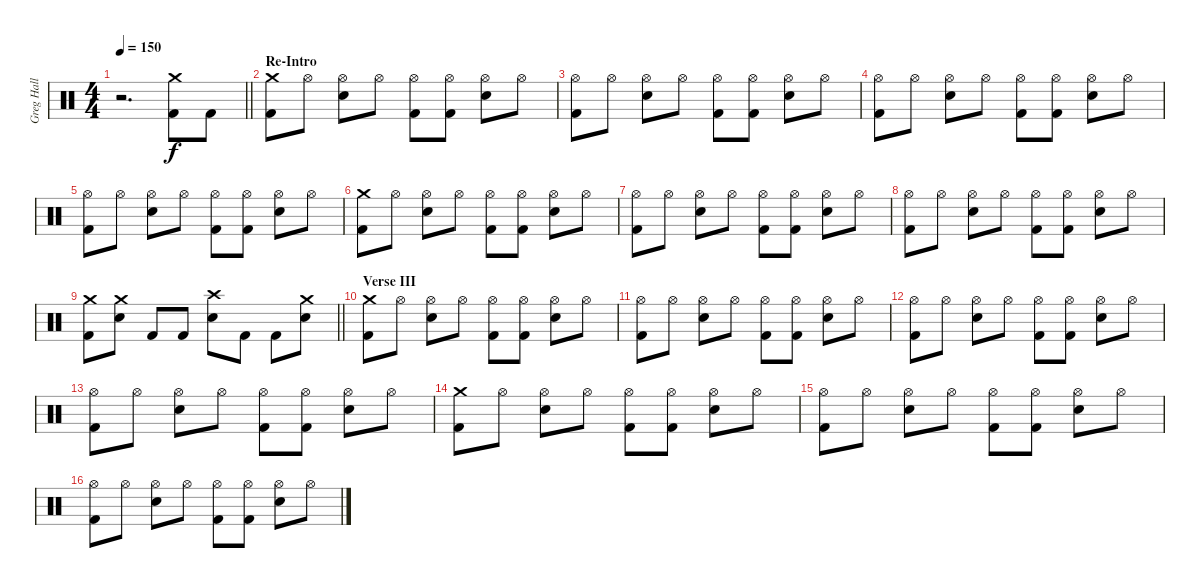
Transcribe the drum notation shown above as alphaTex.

\track ("Greg Hall" "Greg Hall") {instrument percussion}
\staff {score}
\articulation defaults
\ts (4 4)
\tempo 150
\clef neutral
\barLineRight lightlight
\ks c
r.2{d dy f} ("Crash medium (hit)" "Kick (hit) 2").8 "Kick (hit) 2".8 |
\section ("" "Re-Intro")
("Crash medium (hit)" "Kick (hit) 2").8 "Hi-Hat (open)".8 ("Hi-Hat (open)" "Electric Snare (hit)").8 "Hi-Hat (open)".8 ("Hi-Hat (open)" "Kick (hit) 2").8 ("Hi-Hat (open)" "Kick (hit) 2").8 ("Hi-Hat (open)" "Electric Snare (hit)").8 "Hi-Hat (open)".8 |
("Hi-Hat (open)" "Kick (hit) 2").8 "Hi-Hat (open)".8 ("Hi-Hat (open)" "Electric Snare (hit)").8 "Hi-Hat (open)".8 ("Hi-Hat (open)" "Kick (hit) 2").8 ("Hi-Hat (open)" "Kick (hit) 2").8 ("Hi-Hat (open)" "Electric Snare (hit)").8 "Hi-Hat (open)".8 |
("Hi-Hat (open)" "Kick (hit) 2").8 "Hi-Hat (open)".8 ("Hi-Hat (open)" "Electric Snare (hit)").8 "Hi-Hat (open)".8 ("Hi-Hat (open)" "Kick (hit) 2").8 ("Hi-Hat (open)" "Kick (hit) 2").8 ("Hi-Hat (open)" "Electric Snare (hit)").8 "Hi-Hat (open)".8 |
("Hi-Hat (open)" "Kick (hit) 2").8 "Hi-Hat (open)".8 ("Hi-Hat (open)" "Electric Snare (hit)").8 "Hi-Hat (open)".8 ("Hi-Hat (open)" "Kick (hit) 2").8 ("Hi-Hat (open)" "Kick (hit) 2").8 ("Hi-Hat (open)" "Electric Snare (hit)").8 "Hi-Hat (open)".8 |
("Crash medium (hit)" "Kick (hit) 2").8 "Hi-Hat (open)".8 ("Hi-Hat (open)" "Electric Snare (hit)").8 "Hi-Hat (open)".8 ("Hi-Hat (open)" "Kick (hit) 2").8 ("Hi-Hat (open)" "Kick (hit) 2").8 ("Hi-Hat (open)" "Electric Snare (hit)").8 "Hi-Hat (open)".8 |
("Hi-Hat (open)" "Kick (hit) 2").8 "Hi-Hat (open)".8 ("Hi-Hat (open)" "Electric Snare (hit)").8 "Hi-Hat (open)".8 ("Hi-Hat (open)" "Kick (hit) 2").8 ("Hi-Hat (open)" "Kick (hit) 2").8 ("Hi-Hat (open)" "Electric Snare (hit)").8 "Hi-Hat (open)".8 |
("Hi-Hat (open)" "Kick (hit) 2").8 "Hi-Hat (open)".8 ("Hi-Hat (open)" "Electric Snare (hit)").8 "Hi-Hat (open)".8 ("Hi-Hat (open)" "Kick (hit) 2").8 ("Hi-Hat (open)" "Kick (hit) 2").8 ("Hi-Hat (open)" "Electric Snare (hit)").8 "Hi-Hat (open)".8 |
\barLineRight lightlight
("Crash medium (hit)" "Kick (hit) 2").8 ("Crash medium (hit)" "Electric Snare (hit)").8 "Kick (hit) 2".8 "Kick (hit) 2".8 ("Crash high (hit)" "Electric Snare (hit)").8 "Kick (hit) 2".8 "Kick (hit) 2".8 ("Crash medium (hit)" "Electric Snare (hit)").8 |
\section ("" "Verse III")
("Crash medium (hit)" "Kick (hit) 2").8 "Hi-Hat (open)".8 ("Hi-Hat (open)" "Electric Snare (hit)").8 "Hi-Hat (open)".8 ("Hi-Hat (open)" "Kick (hit) 2").8 ("Hi-Hat (open)" "Kick (hit) 2").8 ("Hi-Hat (open)" "Electric Snare (hit)").8 "Hi-Hat (open)".8 |
("Hi-Hat (open)" "Kick (hit) 2").8 "Hi-Hat (open)".8 ("Hi-Hat (open)" "Electric Snare (hit)").8 "Hi-Hat (open)".8 ("Hi-Hat (open)" "Kick (hit) 2").8 ("Hi-Hat (open)" "Kick (hit) 2").8 ("Hi-Hat (open)" "Electric Snare (hit)").8 "Hi-Hat (open)".8 |
("Hi-Hat (open)" "Kick (hit) 2").8 "Hi-Hat (open)".8 ("Hi-Hat (open)" "Electric Snare (hit)").8 "Hi-Hat (open)".8 ("Hi-Hat (open)" "Kick (hit) 2").8 ("Hi-Hat (open)" "Kick (hit) 2").8 ("Hi-Hat (open)" "Electric Snare (hit)").8 "Hi-Hat (open)".8 |
("Hi-Hat (open)" "Kick (hit) 2").8 "Hi-Hat (open)".8 ("Hi-Hat (open)" "Electric Snare (hit)").8 "Hi-Hat (open)".8 ("Hi-Hat (open)" "Kick (hit) 2").8 ("Hi-Hat (open)" "Kick (hit) 2").8 ("Hi-Hat (open)" "Electric Snare (hit)").8 "Hi-Hat (open)".8 |
("Crash medium (hit)" "Kick (hit) 2").8 "Hi-Hat (open)".8 ("Hi-Hat (open)" "Electric Snare (hit)").8 "Hi-Hat (open)".8 ("Hi-Hat (open)" "Kick (hit) 2").8 ("Hi-Hat (open)" "Kick (hit) 2").8 ("Hi-Hat (open)" "Electric Snare (hit)").8 "Hi-Hat (open)".8 |
("Hi-Hat (open)" "Kick (hit) 2").8 "Hi-Hat (open)".8 ("Hi-Hat (open)" "Electric Snare (hit)").8 "Hi-Hat (open)".8 ("Hi-Hat (open)" "Kick (hit) 2").8 ("Hi-Hat (open)" "Kick (hit) 2").8 ("Hi-Hat (open)" "Electric Snare (hit)").8 "Hi-Hat (open)".8 |
("Hi-Hat (open)" "Kick (hit) 2").8 "Hi-Hat (open)".8 ("Hi-Hat (open)" "Electric Snare (hit)").8 "Hi-Hat (open)".8 ("Hi-Hat (open)" "Kick (hit) 2").8 ("Hi-Hat (open)" "Kick (hit) 2").8 ("Hi-Hat (open)" "Electric Snare (hit)").8 "Hi-Hat (open)".8
